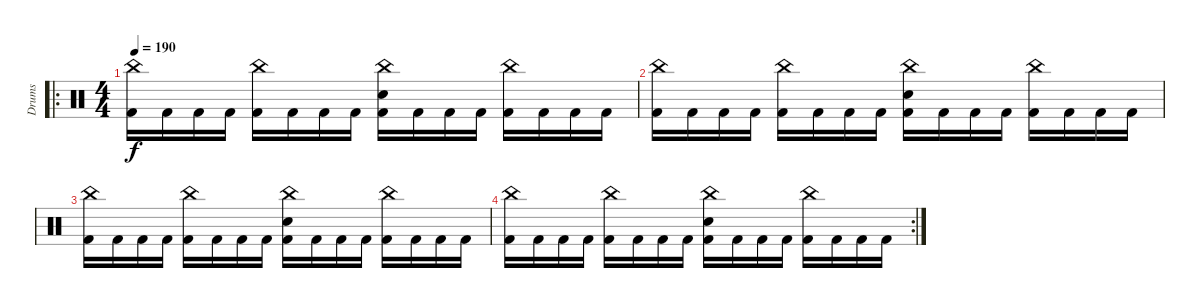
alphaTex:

\track ("Drums" "Drums") {instrument percussion}
\staff {score}
\articulation defaults
\ro
\ts (4 4)
\tempo 190
\clef neutral
\ks c
("China (hit)" "Kick (hit) 2").16{dy f} "Kick (hit) 2".16 "Kick (hit) 2".16 "Kick (hit) 2".16 ("China (hit)" "Kick (hit) 2").16 "Kick (hit) 2".16 "Kick (hit) 2".16 "Kick (hit) 2".16 ("China (hit)" "Electric Snare (hit)" "Kick (hit) 2").16 "Kick (hit) 2".16 "Kick (hit) 2".16 "Kick (hit) 2".16 ("China (hit)" "Kick (hit) 2").16 "Kick (hit) 2".16 "Kick (hit) 2".16 "Kick (hit) 2".16 |
("China (hit)" "Kick (hit) 2").16 "Kick (hit) 2".16 "Kick (hit) 2".16 "Kick (hit) 2".16 ("China (hit)" "Kick (hit) 2").16 "Kick (hit) 2".16 "Kick (hit) 2".16 "Kick (hit) 2".16 ("China (hit)" "Electric Snare (hit)" "Kick (hit) 2").16 "Kick (hit) 2".16 "Kick (hit) 2".16 "Kick (hit) 2".16 ("China (hit)" "Kick (hit) 2").16 "Kick (hit) 2".16 "Kick (hit) 2".16 "Kick (hit) 2".16 |
("China (hit)" "Kick (hit) 2").16 "Kick (hit) 2".16 "Kick (hit) 2".16 "Kick (hit) 2".16 ("China (hit)" "Kick (hit) 2").16 "Kick (hit) 2".16 "Kick (hit) 2".16 "Kick (hit) 2".16 ("China (hit)" "Electric Snare (hit)" "Kick (hit) 2").16 "Kick (hit) 2".16 "Kick (hit) 2".16 "Kick (hit) 2".16 ("China (hit)" "Kick (hit) 2").16 "Kick (hit) 2".16 "Kick (hit) 2".16 "Kick (hit) 2".16 |
\rc 2
("China (hit)" "Kick (hit) 2").16 "Kick (hit) 2".16 "Kick (hit) 2".16 "Kick (hit) 2".16 ("China (hit)" "Kick (hit) 2").16 "Kick (hit) 2".16 "Kick (hit) 2".16 "Kick (hit) 2".16 ("China (hit)" "Electric Snare (hit)" "Kick (hit) 2").16 "Kick (hit) 2".16 "Kick (hit) 2".16 "Kick (hit) 2".16 ("China (hit)" "Kick (hit) 2").16 "Kick (hit) 2".16 "Kick (hit) 2".16 "Kick (hit) 2".16
